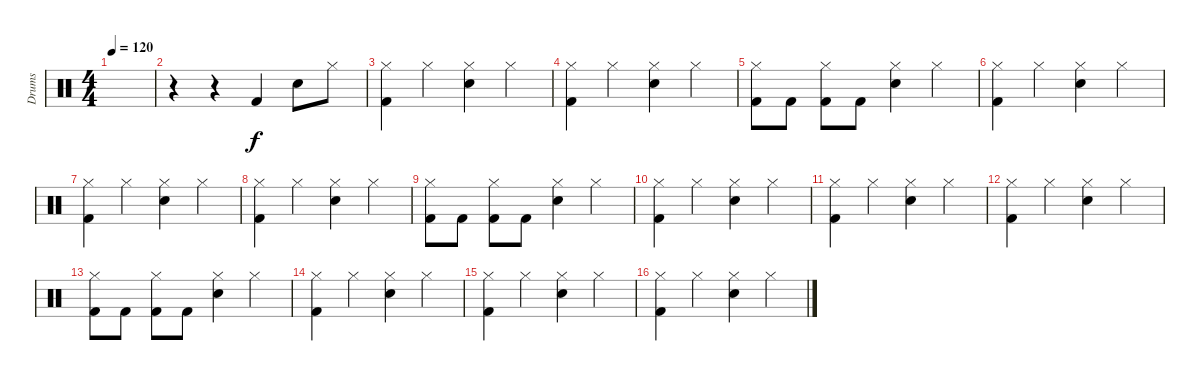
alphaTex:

\track ("Drums" "Drums") {instrument percussion}
\staff {score}
\articulation defaults
\ts (4 4)
\tempo 120
\clef neutral
\ks c
|
r.4 r.4 "Kick (hit) 2".4 "Electric Snare (hit)".8 "Hi-Hat (closed)".8 |
("Hi-Hat (closed)" "Kick (hit) 2").4 "Hi-Hat (closed)".4 ("Hi-Hat (closed)" "Electric Snare (hit)").4 "Hi-Hat (closed)".4 |
("Hi-Hat (closed)" "Kick (hit) 2").4 "Hi-Hat (closed)".4 ("Hi-Hat (closed)" "Electric Snare (hit)").4 "Hi-Hat (closed)".4 |
("Hi-Hat (closed)" "Kick (hit) 2").8 "Kick (hit) 2".8 ("Hi-Hat (closed)" "Kick (hit) 2").8 "Kick (hit) 2".8 ("Hi-Hat (closed)" "Electric Snare (hit)").4 "Hi-Hat (closed)".4 |
("Hi-Hat (closed)" "Kick (hit) 2").4 "Hi-Hat (closed)".4 ("Hi-Hat (closed)" "Electric Snare (hit)").4 "Hi-Hat (closed)".4 |
("Hi-Hat (closed)" "Kick (hit) 2").4 "Hi-Hat (closed)".4 ("Hi-Hat (closed)" "Electric Snare (hit)").4 "Hi-Hat (closed)".4 |
("Hi-Hat (closed)" "Kick (hit) 2").4 "Hi-Hat (closed)".4 ("Hi-Hat (closed)" "Electric Snare (hit)").4 "Hi-Hat (closed)".4 |
("Hi-Hat (closed)" "Kick (hit) 2").8 "Kick (hit) 2".8 ("Hi-Hat (closed)" "Kick (hit) 2").8 "Kick (hit) 2".8 ("Hi-Hat (closed)" "Electric Snare (hit)").4 "Hi-Hat (closed)".4 |
("Hi-Hat (closed)" "Kick (hit) 2").4 "Hi-Hat (closed)".4 ("Hi-Hat (closed)" "Electric Snare (hit)").4 "Hi-Hat (closed)".4 |
("Hi-Hat (closed)" "Kick (hit) 2").4 "Hi-Hat (closed)".4 ("Hi-Hat (closed)" "Electric Snare (hit)").4 "Hi-Hat (closed)".4 |
("Hi-Hat (closed)" "Kick (hit) 2").4 "Hi-Hat (closed)".4 ("Hi-Hat (closed)" "Electric Snare (hit)").4 "Hi-Hat (closed)".4 |
("Hi-Hat (closed)" "Kick (hit) 2").8 "Kick (hit) 2".8 ("Hi-Hat (closed)" "Kick (hit) 2").8 "Kick (hit) 2".8 ("Hi-Hat (closed)" "Electric Snare (hit)").4 "Hi-Hat (closed)".4 |
("Hi-Hat (closed)" "Kick (hit) 2").4 "Hi-Hat (closed)".4 ("Hi-Hat (closed)" "Electric Snare (hit)").4 "Hi-Hat (closed)".4 |
("Hi-Hat (closed)" "Kick (hit) 2").4 "Hi-Hat (closed)".4 ("Hi-Hat (closed)" "Electric Snare (hit)").4 "Hi-Hat (closed)".4 |
("Hi-Hat (closed)" "Kick (hit) 2").4 "Hi-Hat (closed)".4 ("Hi-Hat (closed)" "Electric Snare (hit)").4 "Hi-Hat (closed)".4
